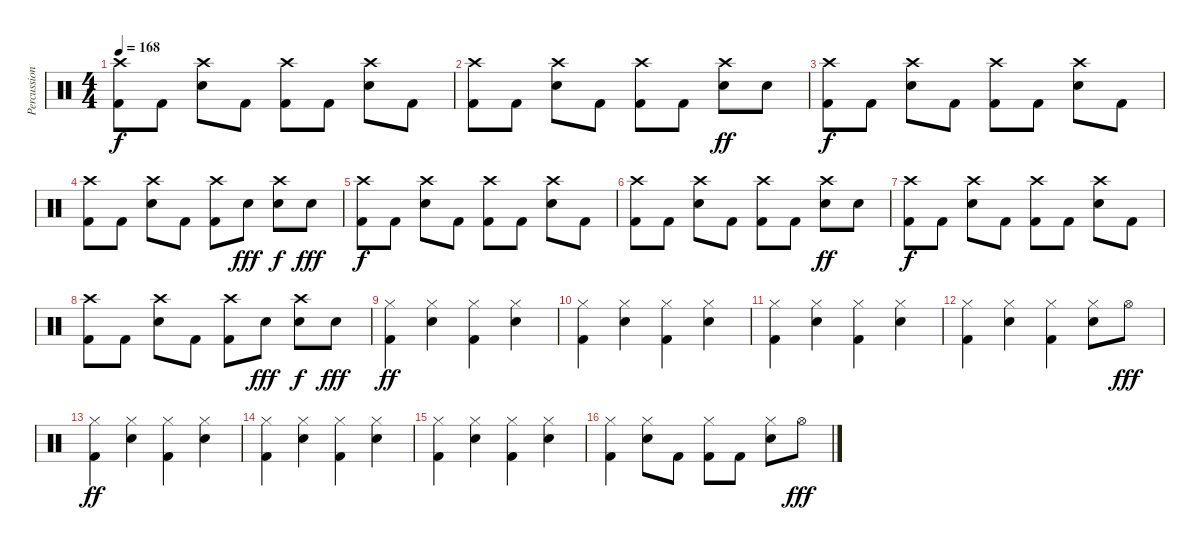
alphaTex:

\track ("Percussion" "Percussion") {instrument percussion}
\staff {score}
\articulation defaults
\ts (4 4)
\tempo 168
\clef neutral
\ks c
("Kick (hit) 2" "Crash high (hit)").8{dy f} "Kick (hit) 2".8 ("Snare (hit) 2" "Crash high (hit)").8 "Kick (hit) 2".8 ("Kick (hit) 2" "Crash high (hit)").8 "Kick (hit) 2".8 ("Snare (hit) 2" "Crash high (hit)").8 "Kick (hit) 2".8 |
("Kick (hit) 2" "Crash high (hit)").8 "Kick (hit) 2".8 ("Snare (hit) 2" "Crash high (hit)").8 "Kick (hit) 2".8 ("Kick (hit) 2" "Crash high (hit)").8 "Kick (hit) 2".8 ("Snare (hit) 2" "Crash high (hit)").8{dy ff} "Snare (hit) 2".8 |
("Kick (hit) 2" "Crash high (hit)").8{dy f} "Kick (hit) 2".8 ("Snare (hit) 2" "Crash high (hit)").8 "Kick (hit) 2".8 ("Kick (hit) 2" "Crash high (hit)").8 "Kick (hit) 2".8 ("Snare (hit) 2" "Crash high (hit)").8 "Kick (hit) 2".8 |
("Kick (hit) 2" "Crash high (hit)").8 "Kick (hit) 2".8 ("Snare (hit) 2" "Crash high (hit)").8 "Kick (hit) 2".8 ("Kick (hit) 2" "Crash high (hit)").8 "Snare (hit) 2".8{dy fff} ("Snare (hit) 2" "Crash high (hit)").8{dy f} "Snare (hit) 2".8{dy fff} |
("Kick (hit) 2" "Crash high (hit)").8{dy f} "Kick (hit) 2".8 ("Snare (hit) 2" "Crash high (hit)").8 "Kick (hit) 2".8 ("Kick (hit) 2" "Crash high (hit)").8 "Kick (hit) 2".8 ("Snare (hit) 2" "Crash high (hit)").8 "Kick (hit) 2".8 |
("Kick (hit) 2" "Crash high (hit)").8 "Kick (hit) 2".8 ("Snare (hit) 2" "Crash high (hit)").8 "Kick (hit) 2".8 ("Kick (hit) 2" "Crash high (hit)").8 "Kick (hit) 2".8 ("Snare (hit) 2" "Crash high (hit)").8{dy ff} "Snare (hit) 2".8 |
("Kick (hit) 2" "Crash high (hit)").8{dy f} "Kick (hit) 2".8 ("Snare (hit) 2" "Crash high (hit)").8 "Kick (hit) 2".8 ("Kick (hit) 2" "Crash high (hit)").8 "Kick (hit) 2".8 ("Snare (hit) 2" "Crash high (hit)").8 "Kick (hit) 2".8 |
("Kick (hit) 2" "Crash high (hit)").8 "Kick (hit) 2".8 ("Snare (hit) 2" "Crash high (hit)").8 "Kick (hit) 2".8 ("Kick (hit) 2" "Crash high (hit)").8 "Snare (hit) 2".8{dy fff} ("Snare (hit) 2" "Crash high (hit)").8{dy f} "Snare (hit) 2".8{dy fff} |
("Kick (hit) 2" "Hi-Hat (closed)").4{dy ff} ("Snare (hit) 2" "Hi-Hat (closed)").4 ("Kick (hit) 2" "Hi-Hat (closed)").4 ("Snare (hit) 2" "Hi-Hat (closed)").4 |
("Kick (hit) 2" "Hi-Hat (closed)").4 ("Snare (hit) 2" "Hi-Hat (closed)").4 ("Kick (hit) 2" "Hi-Hat (closed)").4 ("Snare (hit) 2" "Hi-Hat (closed)").4 |
("Kick (hit) 2" "Hi-Hat (closed)").4 ("Snare (hit) 2" "Hi-Hat (closed)").4 ("Kick (hit) 2" "Hi-Hat (closed)").4 ("Snare (hit) 2" "Hi-Hat (closed)").4 |
("Kick (hit) 2" "Hi-Hat (closed)").4 ("Snare (hit) 2" "Hi-Hat (closed)").4 ("Kick (hit) 2" "Hi-Hat (closed)").4 ("Snare (hit) 2" "Hi-Hat (closed)").8 "Hi-Hat (open)".8{dy fff} |
("Kick (hit) 2" "Hi-Hat (closed)").4{dy ff} ("Snare (hit) 2" "Hi-Hat (closed)").4 ("Kick (hit) 2" "Hi-Hat (closed)").4 ("Snare (hit) 2" "Hi-Hat (closed)").4 |
("Kick (hit) 2" "Hi-Hat (closed)").4 ("Snare (hit) 2" "Hi-Hat (closed)").4 ("Kick (hit) 2" "Hi-Hat (closed)").4 ("Snare (hit) 2" "Hi-Hat (closed)").4 |
("Kick (hit) 2" "Hi-Hat (closed)").4 ("Snare (hit) 2" "Hi-Hat (closed)").4 ("Kick (hit) 2" "Hi-Hat (closed)").4 ("Snare (hit) 2" "Hi-Hat (closed)").4 |
("Kick (hit) 2" "Hi-Hat (closed)").4 ("Snare (hit) 2" "Hi-Hat (closed)").8 "Kick (hit) 2".8 ("Kick (hit) 2" "Hi-Hat (closed)").8 "Kick (hit) 2".8 ("Snare (hit) 2" "Hi-Hat (closed)").8 "Hi-Hat (open)".8{dy fff}
